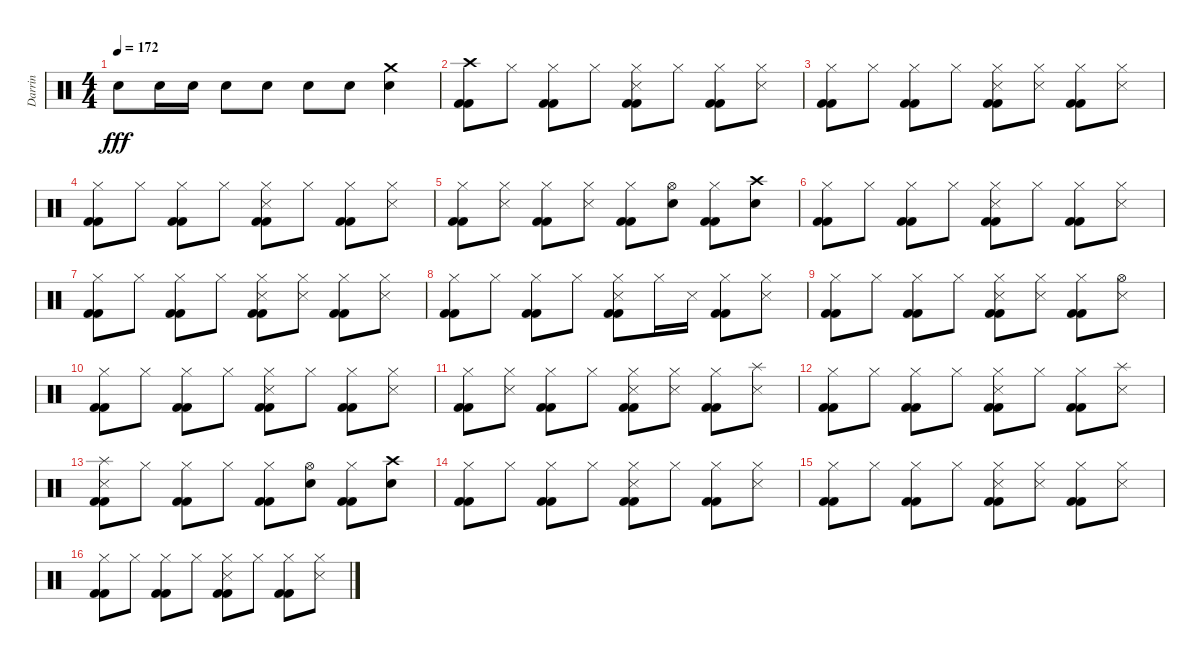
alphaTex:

\track ("Darrin" "Darrin") {instrument percussion}
\staff {score}
\articulation defaults
\ts (4 4)
\tempo 172
\clef neutral
\ks c "Snare (hit) 2".8{dy fff} "Snare (hit) 2".16 "Snare (hit) 2".16 "Snare (hit) 2".8 "Snare (hit) 2".8 "Snare (hit) 2".8 "Snare (hit) 2".8
("Crash medium (hit)" "Snare (hit) 2").4 |
("Crash high (hit)" "Kick (hit) 2" "Kick (hit) 2").8 "Hi-Hat (closed)".8 ("Hi-Hat (closed)" "Kick (hit) 2" "Kick (hit) 2").8 "Hi-Hat (closed)".8 ("Hi-Hat (closed)" "Snare (side stick) 3" "Kick (hit) 2" "Kick (hit) 2").8 "Hi-Hat (closed)".8 ("Hi-Hat (closed)" "Kick (hit) 2" "Kick (hit) 2").8 ("Hi-Hat (closed)" "Snare (side stick) 3").8 |
("Hi-Hat (closed)" "Kick (hit) 2" "Kick (hit) 2").8 "Hi-Hat (closed)".8 ("Hi-Hat (closed)" "Kick (hit) 2" "Kick (hit) 2").8 "Hi-Hat (closed)".8 ("Hi-Hat (closed)" "Snare (side stick) 3" "Kick (hit) 2" "Kick (hit) 2").8 ("Hi-Hat (closed)" "Snare (side stick) 3").8 ("Hi-Hat (closed)" "Kick (hit) 2" "Kick (hit) 2").8 ("Hi-Hat (closed)" "Snare (side stick) 3").8 |
("Hi-Hat (closed)" "Kick (hit) 2" "Kick (hit) 2").8 "Hi-Hat (closed)".8 ("Hi-Hat (closed)" "Kick (hit) 2" "Kick (hit) 2").8 "Hi-Hat (closed)".8 ("Hi-Hat (closed)" "Snare (side stick) 3" "Kick (hit) 2" "Kick (hit) 2").8 "Hi-Hat (closed)".8 ("Hi-Hat (closed)" "Kick (hit) 2" "Kick (hit) 2").8 ("Hi-Hat (closed)" "Snare (side stick) 3").8 |
("Hi-Hat (closed)" "Kick (hit) 2" "Kick (hit) 2").8 ("Hi-Hat (closed)" "Snare (side stick) 3").8 ("Hi-Hat (closed)" "Kick (hit) 2" "Kick (hit) 2").8 ("Hi-Hat (closed)" "Snare (side stick) 3").8 ("Hi-Hat (closed)" "Kick (hit) 2" "Kick (hit) 2").8 ("Hi-Hat (open)" "Snare (hit) 2").8 ("Hi-Hat (closed)" "Kick (hit) 2" "Kick (hit) 2").8 ("Crash high (hit)" "Snare (hit) 2").8 |
("Hi-Hat (closed)" "Kick (hit) 2" "Kick (hit) 2").8 "Hi-Hat (closed)".8 ("Hi-Hat (closed)" "Kick (hit) 2" "Kick (hit) 2").8 "Hi-Hat (closed)".8 ("Hi-Hat (closed)" "Snare (side stick) 3" "Kick (hit) 2" "Kick (hit) 2").8 "Hi-Hat (closed)".8 ("Hi-Hat (closed)" "Kick (hit) 2" "Kick (hit) 2").8 ("Hi-Hat (closed)" "Snare (side stick) 3").8 |
("Hi-Hat (closed)" "Kick (hit) 2" "Kick (hit) 2").8 "Hi-Hat (closed)".8 ("Hi-Hat (closed)" "Kick (hit) 2" "Kick (hit) 2").8 "Hi-Hat (closed)".8 ("Hi-Hat (closed)" "Snare (side stick) 3" "Kick (hit) 2" "Kick (hit) 2").8 ("Hi-Hat (closed)" "Snare (side stick) 3").8 ("Hi-Hat (closed)" "Kick (hit) 2" "Kick (hit) 2").8 ("Hi-Hat (closed)" "Snare (side stick) 3").8 |
("Hi-Hat (closed)" "Kick (hit) 2" "Kick (hit) 2").8 "Hi-Hat (closed)".8 ("Hi-Hat (closed)" "Kick (hit) 2" "Kick (hit) 2").8 "Hi-Hat (closed)".8 ("Hi-Hat (closed)" "Snare (side stick) 3" "Kick (hit) 2" "Kick (hit) 2").8 "Hi-Hat (closed)".16 "Snare (side stick) 3".16 ("Hi-Hat (closed)" "Kick (hit) 2" "Kick (hit) 2").8 ("Hi-Hat (closed)" "Snare (side stick) 3").8 |
("Hi-Hat (closed)" "Kick (hit) 2" "Kick (hit) 2").8 "Hi-Hat (closed)".8 ("Hi-Hat (closed)" "Kick (hit) 2" "Kick (hit) 2").8 "Hi-Hat (closed)".8 ("Hi-Hat (closed)" "Snare (side stick) 3" "Kick (hit) 2" "Kick (hit) 2").8 ("Hi-Hat (closed)" "Snare (side stick) 3").8 ("Hi-Hat (closed)" "Kick (hit) 2" "Kick (hit) 2").8 ("Hi-Hat (open)" "Snare (side stick) 3").8 |
("Hi-Hat (closed)" "Kick (hit) 2" "Kick (hit) 2").8 "Hi-Hat (closed)".8 ("Hi-Hat (closed)" "Kick (hit) 2" "Kick (hit) 2").8 "Hi-Hat (closed)".8 ("Hi-Hat (closed)" "Snare (side stick) 3" "Kick (hit) 2" "Kick (hit) 2").8 "Hi-Hat (closed)".8 ("Hi-Hat (closed)" "Kick (hit) 2" "Kick (hit) 2").8 ("Hi-Hat (closed)" "Snare (side stick) 3").8 |
("Hi-Hat (closed)" "Kick (hit) 2" "Kick (hit) 2").8 ("Hi-Hat (closed)" "Snare (side stick) 3").8 ("Hi-Hat (closed)" "Kick (hit) 2" "Kick (hit) 2").8 "Hi-Hat (closed)".8 ("Hi-Hat (closed)" "Snare (side stick) 3" "Kick (hit) 2" "Kick (hit) 2").8 ("Hi-Hat (closed)" "Snare (side stick) 3").8 ("Hi-Hat (closed)" "Kick (hit) 2" "Kick (hit) 2").8 ("Splash (hit)" "Snare (side stick) 3").8 |
("Hi-Hat (closed)" "Kick (hit) 2" "Kick (hit) 2").8 "Hi-Hat (closed)".8 ("Hi-Hat (closed)" "Kick (hit) 2" "Kick (hit) 2").8 "Hi-Hat (closed)".8 ("Hi-Hat (closed)" "Snare (side stick) 3" "Kick (hit) 2" "Kick (hit) 2").8 "Hi-Hat (closed)".8 ("Hi-Hat (closed)" "Kick (hit) 2" "Kick (hit) 2").8 ("Splash (hit)" "Snare (side stick) 3").8 |
("Splash (hit)" "Snare (side stick) 3" "Kick (hit) 2" "Kick (hit) 2").8 "Hi-Hat (closed)".8 ("Hi-Hat (closed)" "Kick (hit) 2" "Kick (hit) 2").8 "Hi-Hat (closed)".8 ("Hi-Hat (closed)" "Kick (hit) 2" "Kick (hit) 2").8 ("Hi-Hat (open)" "Snare (hit) 2").8 ("Hi-Hat (closed)" "Kick (hit) 2" "Kick (hit) 2").8 ("Crash high (hit)" "Snare (hit) 2").8 |
("Hi-Hat (closed)" "Kick (hit) 2" "Kick (hit) 2").8 "Hi-Hat (closed)".8 ("Hi-Hat (closed)" "Kick (hit) 2" "Kick (hit) 2").8 "Hi-Hat (closed)".8 ("Hi-Hat (closed)" "Snare (side stick) 3" "Kick (hit) 2" "Kick (hit) 2").8 "Hi-Hat (closed)".8 ("Hi-Hat (closed)" "Kick (hit) 2" "Kick (hit) 2").8 ("Hi-Hat (closed)" "Snare (side stick) 3").8 |
("Hi-Hat (closed)" "Kick (hit) 2" "Kick (hit) 2").8 "Hi-Hat (closed)".8 ("Hi-Hat (closed)" "Kick (hit) 2" "Kick (hit) 2").8 "Hi-Hat (closed)".8 ("Hi-Hat (closed)" "Snare (side stick) 3" "Kick (hit) 2" "Kick (hit) 2").8 ("Hi-Hat (closed)" "Snare (side stick) 3").8 ("Hi-Hat (closed)" "Kick (hit) 2" "Kick (hit) 2").8 ("Hi-Hat (closed)" "Snare (side stick) 3").8 |
("Hi-Hat (closed)" "Kick (hit) 2" "Kick (hit) 2").8 "Hi-Hat (closed)".8 ("Hi-Hat (closed)" "Kick (hit) 2" "Kick (hit) 2").8 "Hi-Hat (closed)".8 ("Hi-Hat (closed)" "Snare (side stick) 3" "Kick (hit) 2" "Kick (hit) 2").8 "Hi-Hat (closed)".8 ("Hi-Hat (closed)" "Kick (hit) 2" "Kick (hit) 2").8 ("Hi-Hat (closed)" "Snare (side stick) 3").8
